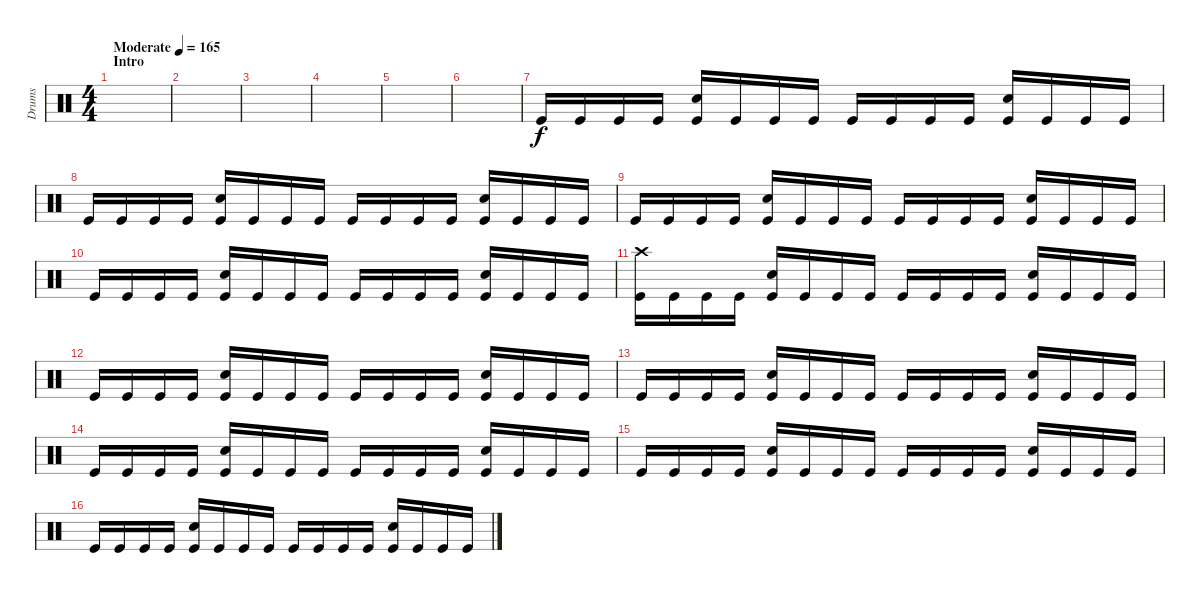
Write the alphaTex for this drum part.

\track ("Drums" "Drums") {instrument percussion}
\staff {score}
\articulation defaults
\ts (4 4)
\section ("" "Intro")
\tempo (165 "Moderate")
\clef neutral
\ks c
|
|
|
|
|
|
"Kick (hit)".16 "Kick (hit)".16 "Kick (hit)".16 "Kick (hit)".16 ("Kick (hit)" "Snare (hit) 2").16 "Kick (hit)".16 "Kick (hit)".16 "Kick (hit)".16 "Kick (hit)".16 "Kick (hit)".16 "Kick (hit)".16 "Kick (hit)".16 ("Kick (hit)" "Snare (hit) 2").16 "Kick (hit)".16 "Kick (hit)".16 "Kick (hit)".16 |
"Kick (hit)".16 "Kick (hit)".16 "Kick (hit)".16 "Kick (hit)".16 ("Kick (hit)" "Snare (hit) 2").16 "Kick (hit)".16 "Kick (hit)".16 "Kick (hit)".16 "Kick (hit)".16 "Kick (hit)".16 "Kick (hit)".16 "Kick (hit)".16 ("Kick (hit)" "Snare (hit) 2").16 "Kick (hit)".16 "Kick (hit)".16 "Kick (hit)".16 |
"Kick (hit)".16 "Kick (hit)".16 "Kick (hit)".16 "Kick (hit)".16 ("Kick (hit)" "Snare (hit) 2").16 "Kick (hit)".16 "Kick (hit)".16 "Kick (hit)".16 "Kick (hit)".16 "Kick (hit)".16 "Kick (hit)".16 "Kick (hit)".16 ("Kick (hit)" "Snare (hit) 2").16 "Kick (hit)".16 "Kick (hit)".16 "Kick (hit)".16 |
"Kick (hit)".16 "Kick (hit)".16 "Kick (hit)".16 "Kick (hit)".16 ("Kick (hit)" "Snare (hit) 2").16 "Kick (hit)".16 "Kick (hit)".16 "Kick (hit)".16 "Kick (hit)".16 "Kick (hit)".16 "Kick (hit)".16 "Kick (hit)".16 ("Kick (hit)" "Snare (hit) 2").16 "Kick (hit)".16 "Kick (hit)".16 "Kick (hit)".16 |
("Kick (hit)" "Crash high (hit)").16 "Kick (hit)".16 "Kick (hit)".16 "Kick (hit)".16 ("Kick (hit)" "Snare (hit) 2").16 "Kick (hit)".16 "Kick (hit)".16 "Kick (hit)".16 "Kick (hit)".16 "Kick (hit)".16 "Kick (hit)".16 "Kick (hit)".16 ("Kick (hit)" "Snare (hit) 2").16 "Kick (hit)".16 "Kick (hit)".16 "Kick (hit)".16 |
"Kick (hit)".16 "Kick (hit)".16 "Kick (hit)".16 "Kick (hit)".16 ("Kick (hit)" "Snare (hit) 2").16 "Kick (hit)".16 "Kick (hit)".16 "Kick (hit)".16 "Kick (hit)".16 "Kick (hit)".16 "Kick (hit)".16 "Kick (hit)".16 ("Kick (hit)" "Snare (hit) 2").16 "Kick (hit)".16 "Kick (hit)".16 "Kick (hit)".16 |
"Kick (hit)".16 "Kick (hit)".16 "Kick (hit)".16 "Kick (hit)".16 ("Kick (hit)" "Snare (hit) 2").16 "Kick (hit)".16 "Kick (hit)".16 "Kick (hit)".16 "Kick (hit)".16 "Kick (hit)".16 "Kick (hit)".16 "Kick (hit)".16 ("Kick (hit)" "Snare (hit) 2").16 "Kick (hit)".16 "Kick (hit)".16 "Kick (hit)".16 |
"Kick (hit)".16 "Kick (hit)".16 "Kick (hit)".16 "Kick (hit)".16 ("Kick (hit)" "Snare (hit) 2").16 "Kick (hit)".16 "Kick (hit)".16 "Kick (hit)".16 "Kick (hit)".16 "Kick (hit)".16 "Kick (hit)".16 "Kick (hit)".16 ("Kick (hit)" "Snare (hit) 2").16 "Kick (hit)".16 "Kick (hit)".16 "Kick (hit)".16 |
"Kick (hit)".16 "Kick (hit)".16 "Kick (hit)".16 "Kick (hit)".16 ("Kick (hit)" "Snare (hit) 2").16 "Kick (hit)".16 "Kick (hit)".16 "Kick (hit)".16 "Kick (hit)".16 "Kick (hit)".16 "Kick (hit)".16 "Kick (hit)".16 ("Kick (hit)" "Snare (hit) 2").16 "Kick (hit)".16 "Kick (hit)".16 "Kick (hit)".16 |
"Kick (hit)".16 "Kick (hit)".16 "Kick (hit)".16 "Kick (hit)".16 ("Kick (hit)" "Snare (hit) 2").16 "Kick (hit)".16 "Kick (hit)".16 "Kick (hit)".16 "Kick (hit)".16 "Kick (hit)".16 "Kick (hit)".16 "Kick (hit)".16 ("Kick (hit)" "Snare (hit) 2").16 "Kick (hit)".16 "Kick (hit)".16 "Kick (hit)".16
